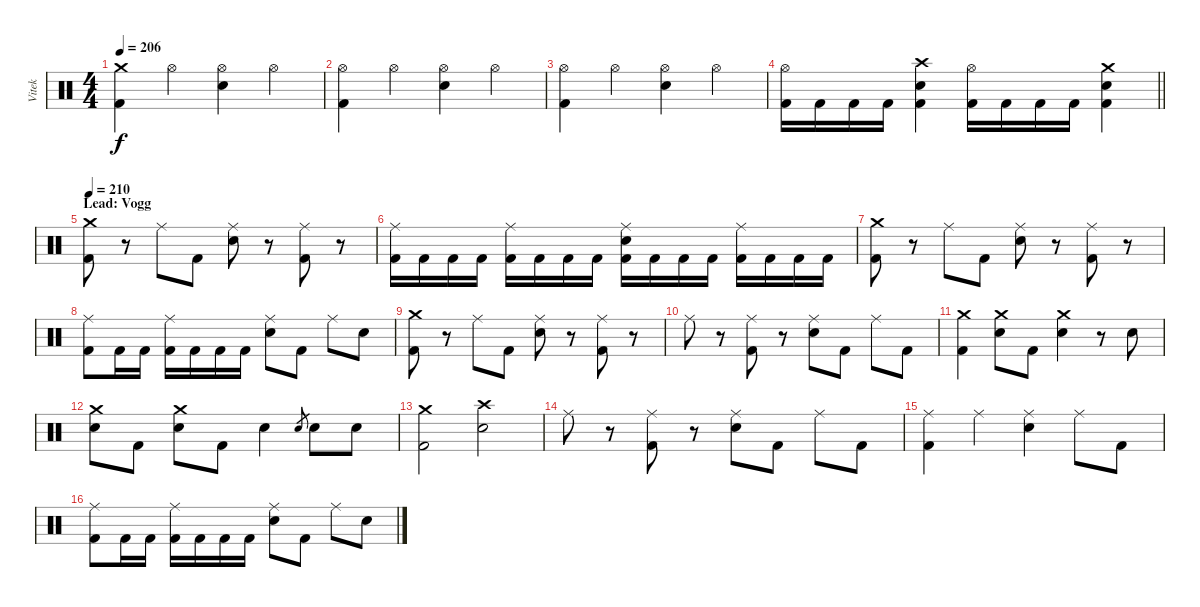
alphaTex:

\track ("Vitek" "Vitek") {instrument percussion}
\staff {score}
\articulation defaults
\ts (4 4)
\tempo 206
\clef neutral
\ks c
("Crash medium (hit)" "Kick (hit) 2").4{dy f} "Hi-Hat (open)".4 ("Hi-Hat (open)" "Electric Snare (hit)").4 "Hi-Hat (open)".4 |
("Hi-Hat (open)" "Kick (hit) 2").4 "Hi-Hat (open)".4 ("Hi-Hat (open)" "Electric Snare (hit)").4 "Hi-Hat (open)".4 |
("Hi-Hat (open)" "Kick (hit) 2").4 "Hi-Hat (open)".4 ("Hi-Hat (open)" "Electric Snare (hit)").4 "Hi-Hat (open)".4 |
\barLineRight lightlight
("Hi-Hat (open)" "Kick (hit) 2").16 "Kick (hit) 2".16 "Kick (hit) 2".16 "Kick (hit) 2".16 ("Crash high (hit)" "Electric Snare (hit)" "Kick (hit) 2").4 ("Hi-Hat (open)" "Kick (hit) 2").16 "Kick (hit) 2".16 "Kick (hit) 2".16 "Kick (hit) 2".16 ("Crash medium (hit)" "Electric Snare (hit)" "Kick (hit) 2").4 |
\section ("" "Lead: Vogg")
\tempo 210
("Crash medium (hit)" "Kick (hit) 2").8 r.8 "Ride (middle)".8 "Kick (hit) 2".8 ("Ride (middle)" "Electric Snare (hit)").8 r.8 ("Ride (middle)" "Kick (hit) 2").8 r.8 |
("Ride (middle)" "Kick (hit) 2").16 "Kick (hit) 2".16 "Kick (hit) 2".16 "Kick (hit) 2".16 ("Ride (middle)" "Kick (hit) 2").16 "Kick (hit) 2".16 "Kick (hit) 2".16 "Kick (hit) 2".16 ("Ride (middle)" "Electric Snare (hit)" "Kick (hit) 2").16 "Kick (hit) 2".16 "Kick (hit) 2".16 "Kick (hit) 2".16 ("Ride (middle)" "Kick (hit) 2").16 "Kick (hit) 2".16 "Kick (hit) 2".16 "Kick (hit) 2".16 |
("Crash medium (hit)" "Kick (hit) 2").8 r.8 "Ride (middle)".8 "Kick (hit) 2".8 ("Ride (middle)" "Electric Snare (hit)").8 r.8 ("Ride (middle)" "Kick (hit) 2").8 r.8 |
("Ride (middle)" "Kick (hit) 2").8 "Kick (hit) 2".16 "Kick (hit) 2".16 ("Ride (middle)" "Kick (hit) 2").16 "Kick (hit) 2".16 "Kick (hit) 2".16 "Kick (hit) 2".16 ("Ride (middle)" "Electric Snare (hit)").8 "Kick (hit) 2".8 "Ride (middle)".8 "Electric Snare (hit)".8 |
("Crash medium (hit)" "Kick (hit) 2").8 r.8 "Ride (middle)".8 "Kick (hit) 2".8 ("Ride (middle)" "Electric Snare (hit)").8 r.8 ("Ride (middle)" "Kick (hit) 2").8 r.8 |
"Ride (middle)".8 r.8 ("Ride (middle)" "Kick (hit) 2").8 r.8 ("Ride (middle)" "Electric Snare (hit)").8 "Kick (hit) 2".8 "Ride (middle)".8 "Kick (hit) 2".8 |
("Crash medium (hit)" "Kick (hit) 2").4 ("Crash medium (hit)" "Electric Snare (hit)").8 "Kick (hit) 2".8 ("Crash medium (hit)" "Electric Snare (hit)").4 r.8 "Electric Snare (hit)".8 |
("Crash medium (hit)" "Electric Snare (hit)").8 "Kick (hit) 2".8 ("Crash medium (hit)" "Electric Snare (hit)").8 "Kick (hit) 2".8 "Electric Snare (hit)".4 "Electric Snare (hit)".8{gr} "Electric Snare (hit)".8 "Electric Snare (hit)".8 |
("Crash medium (hit)" "Kick (hit) 2").2 ("Crash high (hit)" "Electric Snare (hit)").2 |
"Ride (middle)".8 r.8 ("Ride (middle)" "Kick (hit) 2").8 r.8 ("Ride (middle)" "Electric Snare (hit)").8 "Kick (hit) 2".8 "Ride (middle)".8 "Kick (hit) 2".8 |
("Ride (middle)" "Kick (hit) 2").4 "Ride (middle)".4 ("Ride (middle)" "Electric Snare (hit)").4 "Ride (middle)".8 "Kick (hit) 2".8 |
("Ride (middle)" "Kick (hit) 2").8 "Kick (hit) 2".16 "Kick (hit) 2".16 ("Ride (middle)" "Kick (hit) 2").16 "Kick (hit) 2".16 "Kick (hit) 2".16 "Kick (hit) 2".16 ("Ride (middle)" "Electric Snare (hit)").8 "Kick (hit) 2".8 "Ride (middle)".8 "Electric Snare (hit)".8
